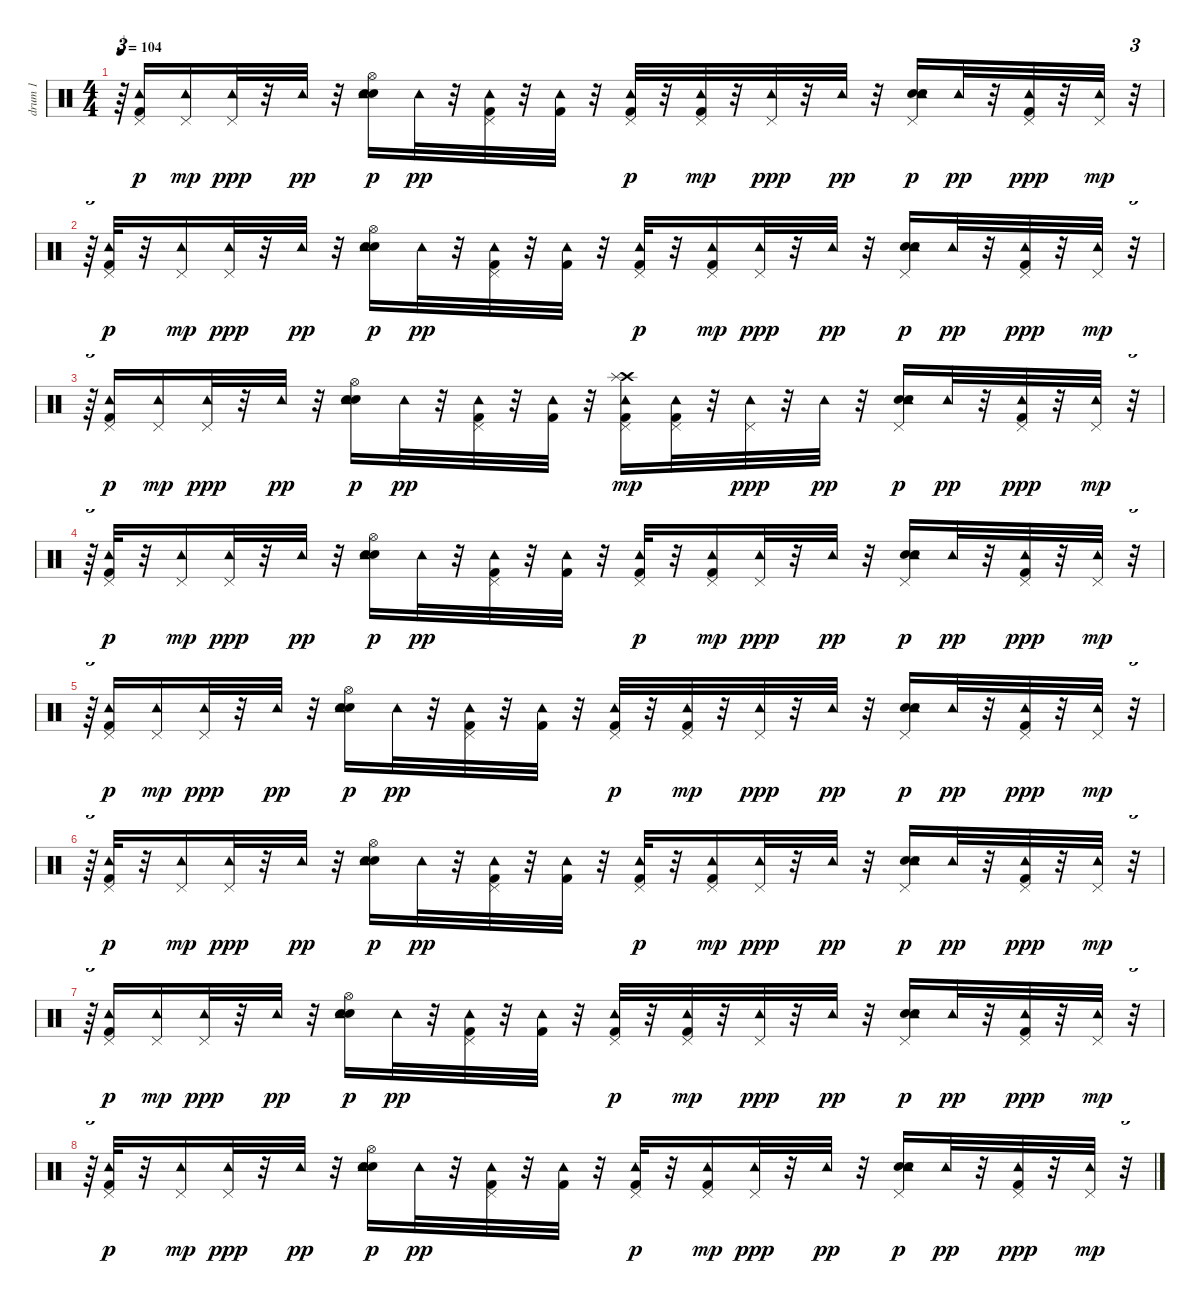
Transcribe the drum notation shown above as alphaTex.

\track ("drum 1" "drum 1") {instrument percussion}
\staff {score}
\articulation defaults
\ts (4 4)
\tempo 104
\clef neutral
\ks c
r.64{tu (3 2) dy mp} ("Kick (hit) 2" "Pedal Hi-Hat (hit)" "Tambourine (hit)").16{dy p} ("Tambourine (hit)" "Pedal Hi-Hat (hit)").16{dy mp} ("Pedal Hi-Hat (hit)" "Tambourine (hit)").32{dy ppp} r.32 "Tambourine (hit)".32{dy pp} r.32 ("Hand Clap (hit)" "Electric Snare (hit)" "Hi-Hat (open)" "Tambourine (hit)").16{dy p} "Tambourine (hit)".32{dy pp} r.32 ("Kick (hit) 2" "Pedal Hi-Hat (hit)" "Tambourine (hit)").32 r.32 ("Kick (hit) 2" "Tambourine (hit)").32 r.32 ("Kick (hit) 2" "Pedal Hi-Hat (hit)" "Tambourine (hit)").32{dy p} r.32 ("Kick (hit) 2" "Tambourine (hit)" "Pedal Hi-Hat (hit)").32{dy mp} r.32 ("Pedal Hi-Hat (hit)" "Tambourine (hit)").32{dy ppp} r.32 "Tambourine (hit)".32{dy pp} r.32 ("Hand Clap (hit)" "Electric Snare (hit)" "Pedal Hi-Hat (hit)" "Tambourine (hit)").16{dy p} "Tambourine (hit)".32{dy pp} r.32 ("Kick (hit) 2" "Pedal Hi-Hat (hit)" "Tambourine (hit)").32{dy ppp} r.32 ("Tambourine (hit)" "Pedal Hi-Hat (hit)").32{dy mp} r.32{tu (3 2)} |
r.64{tu (3 2)} ("Kick (hit) 2" "Pedal Hi-Hat (hit)" "Tambourine (hit)").32{dy p} r.32 ("Tambourine (hit)" "Pedal Hi-Hat (hit)").16{dy mp} ("Pedal Hi-Hat (hit)" "Tambourine (hit)").32{dy ppp} r.32 "Tambourine (hit)".32{dy pp} r.32 ("Hand Clap (hit)" "Electric Snare (hit)" "Hi-Hat (open)" "Tambourine (hit)").16{dy p} "Tambourine (hit)".32{dy pp} r.32 ("Kick (hit) 2" "Pedal Hi-Hat (hit)" "Tambourine (hit)").32 r.32 ("Kick (hit) 2" "Tambourine (hit)").32 r.32 ("Kick (hit) 2" "Pedal Hi-Hat (hit)" "Tambourine (hit)").32{dy p} r.32 ("Kick (hit) 2" "Tambourine (hit)" "Pedal Hi-Hat (hit)").16{dy mp} ("Pedal Hi-Hat (hit)" "Tambourine (hit)").32{dy ppp} r.32 "Tambourine (hit)".32{dy pp} r.32 ("Hand Clap (hit)" "Electric Snare (hit)" "Pedal Hi-Hat (hit)" "Tambourine (hit)").16{dy p} "Tambourine (hit)".32{dy pp} r.32 ("Kick (hit) 2" "Pedal Hi-Hat (hit)" "Tambourine (hit)").32{dy ppp} r.32 ("Tambourine (hit)" "Pedal Hi-Hat (hit)").32{dy mp} r.32{tu (3 2)} |
r.64{tu (3 2)} ("Kick (hit) 2" "Pedal Hi-Hat (hit)" "Tambourine (hit)").16{dy p} ("Tambourine (hit)" "Pedal Hi-Hat (hit)").16{dy mp} ("Pedal Hi-Hat (hit)" "Tambourine (hit)").32{dy ppp} r.32 "Tambourine (hit)".32{dy pp} r.32 ("Hand Clap (hit)" "Electric Snare (hit)" "Hi-Hat (open)" "Tambourine (hit)").16{dy p} "Tambourine (hit)".32{dy pp} r.32 ("Kick (hit) 2" "Pedal Hi-Hat (hit)" "Tambourine (hit)").32 r.32 ("Kick (hit) 2" "Tambourine (hit)").32 r.32 ("Kick (hit) 2" "Pedal Hi-Hat (hit)" "Crash high (hit)" "Tambourine (hit)" "Splash (hit)").16{dy mp} ("Kick (hit) 2" "Tambourine (hit)" "Pedal Hi-Hat (hit)").32 r.32 ("Pedal Hi-Hat (hit)" "Tambourine (hit)").32{dy ppp} r.32 "Tambourine (hit)".32{dy pp} r.32 ("Hand Clap (hit)" "Electric Snare (hit)" "Pedal Hi-Hat (hit)" "Tambourine (hit)").16{dy p} "Tambourine (hit)".32{dy pp} r.32 ("Kick (hit) 2" "Pedal Hi-Hat (hit)" "Tambourine (hit)").32{dy ppp} r.32 ("Tambourine (hit)" "Pedal Hi-Hat (hit)").32{dy mp} r.32{tu (3 2)} |
r.64{tu (3 2)} ("Kick (hit) 2" "Pedal Hi-Hat (hit)" "Tambourine (hit)").32{dy p} r.32 ("Tambourine (hit)" "Pedal Hi-Hat (hit)").16{dy mp} ("Pedal Hi-Hat (hit)" "Tambourine (hit)").32{dy ppp} r.32 "Tambourine (hit)".32{dy pp} r.32 ("Hand Clap (hit)" "Electric Snare (hit)" "Hi-Hat (open)" "Tambourine (hit)").16{dy p} "Tambourine (hit)".32{dy pp} r.32 ("Kick (hit) 2" "Pedal Hi-Hat (hit)" "Tambourine (hit)").32 r.32 ("Kick (hit) 2" "Tambourine (hit)").32 r.32 ("Kick (hit) 2" "Pedal Hi-Hat (hit)" "Tambourine (hit)").32{dy p} r.32 ("Kick (hit) 2" "Tambourine (hit)" "Pedal Hi-Hat (hit)").16{dy mp} ("Pedal Hi-Hat (hit)" "Tambourine (hit)").32{dy ppp} r.32 "Tambourine (hit)".32{dy pp} r.32 ("Hand Clap (hit)" "Electric Snare (hit)" "Pedal Hi-Hat (hit)" "Tambourine (hit)").16{dy p} "Tambourine (hit)".32{dy pp} r.32 ("Kick (hit) 2" "Pedal Hi-Hat (hit)" "Tambourine (hit)").32{dy ppp} r.32 ("Tambourine (hit)" "Pedal Hi-Hat (hit)").32{dy mp} r.32{tu (3 2)} |
r.64{tu (3 2)} ("Kick (hit) 2" "Pedal Hi-Hat (hit)" "Tambourine (hit)").16{dy p} ("Tambourine (hit)" "Pedal Hi-Hat (hit)").16{dy mp} ("Pedal Hi-Hat (hit)" "Tambourine (hit)").32{dy ppp} r.32 "Tambourine (hit)".32{dy pp} r.32 ("Hand Clap (hit)" "Electric Snare (hit)" "Hi-Hat (open)" "Tambourine (hit)").16{dy p} "Tambourine (hit)".32{dy pp} r.32 ("Kick (hit) 2" "Pedal Hi-Hat (hit)" "Tambourine (hit)").32 r.32 ("Kick (hit) 2" "Tambourine (hit)").32 r.32 ("Kick (hit) 2" "Pedal Hi-Hat (hit)" "Tambourine (hit)").32{dy p} r.32 ("Kick (hit) 2" "Tambourine (hit)" "Pedal Hi-Hat (hit)").32{dy mp} r.32 ("Pedal Hi-Hat (hit)" "Tambourine (hit)").32{dy ppp} r.32 "Tambourine (hit)".32{dy pp} r.32 ("Hand Clap (hit)" "Electric Snare (hit)" "Pedal Hi-Hat (hit)" "Tambourine (hit)").16{dy p} "Tambourine (hit)".32{dy pp} r.32 ("Kick (hit) 2" "Pedal Hi-Hat (hit)" "Tambourine (hit)").32{dy ppp} r.32 ("Tambourine (hit)" "Pedal Hi-Hat (hit)").32{dy mp} r.32{tu (3 2)} |
r.64{tu (3 2)} ("Kick (hit) 2" "Pedal Hi-Hat (hit)" "Tambourine (hit)").32{dy p} r.32 ("Tambourine (hit)" "Pedal Hi-Hat (hit)").16{dy mp} ("Pedal Hi-Hat (hit)" "Tambourine (hit)").32{dy ppp} r.32 "Tambourine (hit)".32{dy pp} r.32 ("Hand Clap (hit)" "Electric Snare (hit)" "Hi-Hat (open)" "Tambourine (hit)").16{dy p} "Tambourine (hit)".32{dy pp} r.32 ("Kick (hit) 2" "Pedal Hi-Hat (hit)" "Tambourine (hit)").32 r.32 ("Kick (hit) 2" "Tambourine (hit)").32 r.32 ("Kick (hit) 2" "Pedal Hi-Hat (hit)" "Tambourine (hit)").32{dy p} r.32 ("Kick (hit) 2" "Tambourine (hit)" "Pedal Hi-Hat (hit)").16{dy mp} ("Pedal Hi-Hat (hit)" "Tambourine (hit)").32{dy ppp} r.32 "Tambourine (hit)".32{dy pp} r.32 ("Hand Clap (hit)" "Electric Snare (hit)" "Pedal Hi-Hat (hit)" "Tambourine (hit)").16{dy p} "Tambourine (hit)".32{dy pp} r.32 ("Kick (hit) 2" "Pedal Hi-Hat (hit)" "Tambourine (hit)").32{dy ppp} r.32 ("Tambourine (hit)" "Pedal Hi-Hat (hit)").32{dy mp} r.32{tu (3 2)} |
r.64{tu (3 2)} ("Kick (hit) 2" "Pedal Hi-Hat (hit)" "Tambourine (hit)").16{dy p} ("Tambourine (hit)" "Pedal Hi-Hat (hit)").16{dy mp} ("Pedal Hi-Hat (hit)" "Tambourine (hit)").32{dy ppp} r.32 "Tambourine (hit)".32{dy pp} r.32 ("Hand Clap (hit)" "Electric Snare (hit)" "Hi-Hat (open)" "Tambourine (hit)").16{dy p} "Tambourine (hit)".32{dy pp} r.32 ("Kick (hit) 2" "Pedal Hi-Hat (hit)" "Tambourine (hit)").32 r.32 ("Kick (hit) 2" "Tambourine (hit)").32 r.32 ("Kick (hit) 2" "Pedal Hi-Hat (hit)" "Tambourine (hit)").32{dy p} r.32 ("Kick (hit) 2" "Tambourine (hit)" "Pedal Hi-Hat (hit)").32{dy mp} r.32 ("Pedal Hi-Hat (hit)" "Tambourine (hit)").32{dy ppp} r.32 "Tambourine (hit)".32{dy pp} r.32 ("Hand Clap (hit)" "Electric Snare (hit)" "Pedal Hi-Hat (hit)" "Tambourine (hit)").16{dy p} "Tambourine (hit)".32{dy pp} r.32 ("Kick (hit) 2" "Pedal Hi-Hat (hit)" "Tambourine (hit)").32{dy ppp} r.32 ("Tambourine (hit)" "Pedal Hi-Hat (hit)").32{dy mp} r.32{tu (3 2)} |
r.64{tu (3 2)} ("Kick (hit) 2" "Pedal Hi-Hat (hit)" "Tambourine (hit)").32{dy p} r.32 ("Tambourine (hit)" "Pedal Hi-Hat (hit)").16{dy mp} ("Pedal Hi-Hat (hit)" "Tambourine (hit)").32{dy ppp} r.32 "Tambourine (hit)".32{dy pp} r.32 ("Hand Clap (hit)" "Electric Snare (hit)" "Hi-Hat (open)" "Tambourine (hit)").16{dy p} "Tambourine (hit)".32{dy pp} r.32 ("Kick (hit) 2" "Pedal Hi-Hat (hit)" "Tambourine (hit)").32 r.32 ("Kick (hit) 2" "Tambourine (hit)").32 r.32 ("Kick (hit) 2" "Pedal Hi-Hat (hit)" "Tambourine (hit)").32{dy p} r.32 ("Kick (hit) 2" "Tambourine (hit)" "Pedal Hi-Hat (hit)").16{dy mp} ("Pedal Hi-Hat (hit)" "Tambourine (hit)").32{dy ppp} r.32 "Tambourine (hit)".32{dy pp} r.32 ("Hand Clap (hit)" "Electric Snare (hit)" "Pedal Hi-Hat (hit)" "Tambourine (hit)").16{dy p} "Tambourine (hit)".32{dy pp} r.32 ("Kick (hit) 2" "Pedal Hi-Hat (hit)" "Tambourine (hit)").32{dy ppp} r.32 ("Tambourine (hit)" "Pedal Hi-Hat (hit)").32{dy mp} r.32{tu (3 2)}
